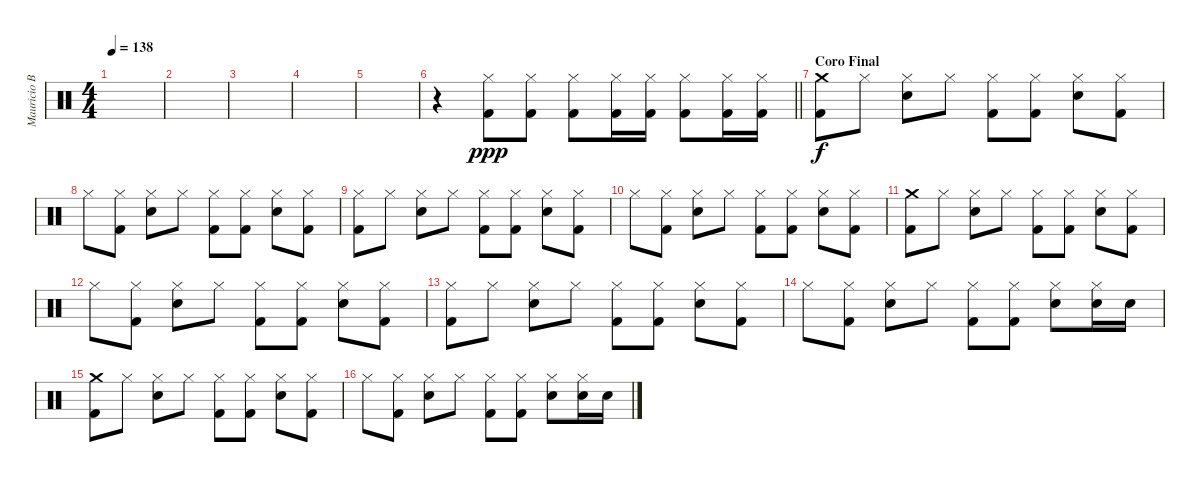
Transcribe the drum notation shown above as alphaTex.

\track ("Mauricio Basualto" "Mauricio B") {instrument percussion}
\staff {score}
\articulation defaults
\ts (4 4)
\tempo 138
\clef neutral
\ks c
|
|
|
|
|
\barLineRight lightlight
r.4 ("Hi-Hat (closed)" "Kick (hit) 2").8{dy ppp} ("Hi-Hat (closed)" "Kick (hit) 2").8 ("Hi-Hat (closed)" "Kick (hit) 2").8 ("Hi-Hat (closed)" "Kick (hit) 2").16 ("Hi-Hat (closed)" "Kick (hit) 2").16 ("Hi-Hat (closed)" "Kick (hit) 2").8 ("Hi-Hat (closed)" "Kick (hit) 2").16 ("Hi-Hat (closed)" "Kick (hit) 2").16 |
\section ("" "Coro Final")
("Crash medium (hit)" "Kick (hit) 2").8{dy f} "Hi-Hat (closed)".8 ("Hi-Hat (closed)" "Snare (hit) 2").8 "Hi-Hat (closed)".8 ("Hi-Hat (closed)" "Kick (hit) 2").8 ("Hi-Hat (closed)" "Kick (hit) 2").8 ("Hi-Hat (closed)" "Snare (hit) 2").8 ("Hi-Hat (closed)" "Kick (hit) 2").8 |
"Hi-Hat (closed)".8 ("Hi-Hat (closed)" "Kick (hit) 2").8 ("Hi-Hat (closed)" "Snare (hit) 2").8 "Hi-Hat (closed)".8 ("Hi-Hat (closed)" "Kick (hit) 2").8 ("Hi-Hat (closed)" "Kick (hit) 2").8 ("Hi-Hat (closed)" "Snare (hit) 2").8 ("Hi-Hat (closed)" "Kick (hit) 2").8 |
("Hi-Hat (closed)" "Kick (hit) 2").8 "Hi-Hat (closed)".8 ("Hi-Hat (closed)" "Snare (hit) 2").8 "Hi-Hat (closed)".8 ("Hi-Hat (closed)" "Kick (hit) 2").8 ("Hi-Hat (closed)" "Kick (hit) 2").8 ("Hi-Hat (closed)" "Snare (hit) 2").8 ("Hi-Hat (closed)" "Kick (hit) 2").8 |
"Hi-Hat (closed)".8 ("Hi-Hat (closed)" "Kick (hit) 2").8 ("Hi-Hat (closed)" "Snare (hit) 2").8 "Hi-Hat (closed)".8 ("Hi-Hat (closed)" "Kick (hit) 2").8 ("Hi-Hat (closed)" "Kick (hit) 2").8 ("Hi-Hat (closed)" "Snare (hit) 2").8 ("Hi-Hat (closed)" "Kick (hit) 2").8 |
("Crash medium (hit)" "Kick (hit) 2").8 "Hi-Hat (closed)".8 ("Hi-Hat (closed)" "Snare (hit) 2").8 "Hi-Hat (closed)".8 ("Hi-Hat (closed)" "Kick (hit) 2").8 ("Hi-Hat (closed)" "Kick (hit) 2").8 ("Hi-Hat (closed)" "Snare (hit) 2").8 ("Hi-Hat (closed)" "Kick (hit) 2").8 |
"Hi-Hat (closed)".8 ("Hi-Hat (closed)" "Kick (hit) 2").8 ("Hi-Hat (closed)" "Snare (hit) 2").8 "Hi-Hat (closed)".8 ("Hi-Hat (closed)" "Kick (hit) 2").8 ("Hi-Hat (closed)" "Kick (hit) 2").8 ("Hi-Hat (closed)" "Snare (hit) 2").8 ("Hi-Hat (closed)" "Kick (hit) 2").8 |
("Hi-Hat (closed)" "Kick (hit) 2").8 "Hi-Hat (closed)".8 ("Hi-Hat (closed)" "Snare (hit) 2").8 "Hi-Hat (closed)".8 ("Hi-Hat (closed)" "Kick (hit) 2").8 ("Hi-Hat (closed)" "Kick (hit) 2").8 ("Hi-Hat (closed)" "Snare (hit) 2").8 ("Hi-Hat (closed)" "Kick (hit) 2").8 |
"Hi-Hat (closed)".8 ("Hi-Hat (closed)" "Kick (hit) 2").8 ("Hi-Hat (closed)" "Snare (hit) 2").8 "Hi-Hat (closed)".8 ("Hi-Hat (closed)" "Kick (hit) 2").8 ("Hi-Hat (closed)" "Kick (hit) 2").8 ("Hi-Hat (closed)" "Snare (hit) 2").8 ("Hi-Hat (closed)" "Snare (hit) 2").16 "Snare (hit) 2".16 |
("Crash medium (hit)" "Kick (hit) 2").8 "Hi-Hat (closed)".8 ("Hi-Hat (closed)" "Snare (hit) 2").8 "Hi-Hat (closed)".8 ("Hi-Hat (closed)" "Kick (hit) 2").8 ("Hi-Hat (closed)" "Kick (hit) 2").8 ("Hi-Hat (closed)" "Snare (hit) 2").8 ("Hi-Hat (closed)" "Kick (hit) 2").8 |
"Hi-Hat (closed)".8 ("Hi-Hat (closed)" "Kick (hit) 2").8 ("Hi-Hat (closed)" "Snare (hit) 2").8 "Hi-Hat (closed)".8 ("Hi-Hat (closed)" "Kick (hit) 2").8 ("Hi-Hat (closed)" "Kick (hit) 2").8 ("Hi-Hat (closed)" "Snare (hit) 2").8 ("Hi-Hat (closed)" "Snare (hit) 2").16 "Snare (hit) 2".16
